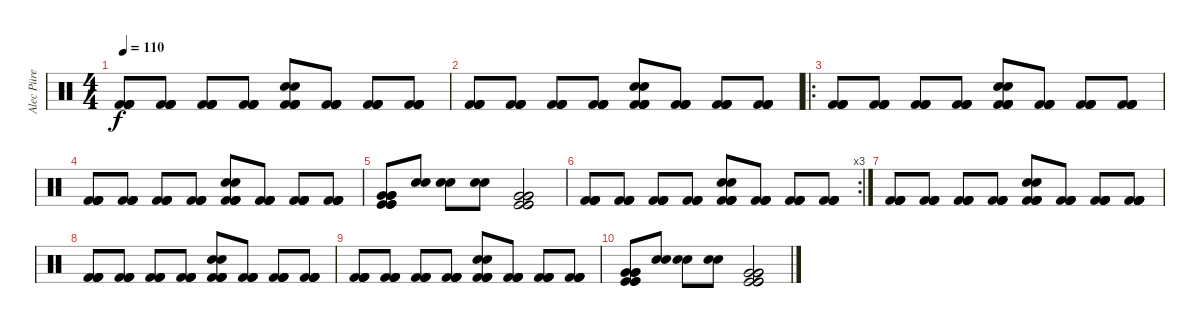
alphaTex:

\track ("Alec Püre" "Alec Püre") {instrument percussion}
\staff {score}
\articulation defaults
\ts (4 4)
\tempo 110
\clef neutral
\ks c
("Kick (hit) 2" "Kick (hit) 2" "Kick (hit) 2" "Kick (hit) 2").8{dy f} ("Kick (hit) 2" "Kick (hit) 2" "Kick (hit) 2" "Kick (hit) 2").8 ("Kick (hit) 2" "Kick (hit) 2" "Kick (hit) 2" "Kick (hit) 2").8 ("Kick (hit) 2" "Kick (hit) 2" "Kick (hit) 2" "Kick (hit) 2").8 ("Snare (hit) 2" "Snare (hit) 2" "Kick (hit) 2" "Kick (hit) 2" "Kick (hit) 2" "Kick (hit) 2").8 ("Kick (hit) 2" "Kick (hit) 2" "Kick (hit) 2" "Kick (hit) 2").8 ("Kick (hit) 2" "Kick (hit) 2" "Kick (hit) 2" "Kick (hit) 2").8 ("Kick (hit) 2" "Kick (hit) 2" "Kick (hit) 2" "Kick (hit) 2").8 |
("Kick (hit) 2" "Kick (hit) 2" "Kick (hit) 2" "Kick (hit) 2").8 ("Kick (hit) 2" "Kick (hit) 2" "Kick (hit) 2" "Kick (hit) 2").8 ("Kick (hit) 2" "Kick (hit) 2" "Kick (hit) 2" "Kick (hit) 2").8 ("Kick (hit) 2" "Kick (hit) 2" "Kick (hit) 2" "Kick (hit) 2").8 ("Snare (hit) 2" "Snare (hit) 2" "Kick (hit) 2" "Kick (hit) 2" "Kick (hit) 2" "Kick (hit) 2").8 ("Kick (hit) 2" "Kick (hit) 2" "Kick (hit) 2" "Kick (hit) 2").8 ("Kick (hit) 2" "Kick (hit) 2" "Kick (hit) 2" "Kick (hit) 2").8 ("Kick (hit) 2" "Kick (hit) 2" "Kick (hit) 2" "Kick (hit) 2").8 |
\ro
("Kick (hit) 2" "Kick (hit) 2" "Kick (hit) 2" "Kick (hit) 2").8 ("Kick (hit) 2" "Kick (hit) 2" "Kick (hit) 2" "Kick (hit) 2").8 ("Kick (hit) 2" "Kick (hit) 2" "Kick (hit) 2" "Kick (hit) 2").8 ("Kick (hit) 2" "Kick (hit) 2" "Kick (hit) 2" "Kick (hit) 2").8 ("Snare (hit) 2" "Snare (hit) 2" "Kick (hit) 2" "Kick (hit) 2" "Kick (hit) 2" "Kick (hit) 2").8 ("Kick (hit) 2" "Kick (hit) 2" "Kick (hit) 2" "Kick (hit) 2").8 ("Kick (hit) 2" "Kick (hit) 2" "Kick (hit) 2" "Kick (hit) 2").8 ("Kick (hit) 2" "Kick (hit) 2" "Kick (hit) 2" "Kick (hit) 2").8 |
("Kick (hit) 2" "Kick (hit) 2" "Kick (hit) 2" "Kick (hit) 2").8 ("Kick (hit) 2" "Kick (hit) 2" "Kick (hit) 2" "Kick (hit) 2").8 ("Kick (hit) 2" "Kick (hit) 2" "Kick (hit) 2" "Kick (hit) 2").8 ("Kick (hit) 2" "Kick (hit) 2" "Kick (hit) 2" "Kick (hit) 2").8 ("Snare (hit) 2" "Snare (hit) 2" "Kick (hit) 2" "Kick (hit) 2" "Kick (hit) 2" "Kick (hit) 2").8 ("Kick (hit) 2" "Kick (hit) 2" "Kick (hit) 2" "Kick (hit) 2").8 ("Kick (hit) 2" "Kick (hit) 2" "Kick (hit) 2" "Kick (hit) 2").8 ("Kick (hit) 2" "Kick (hit) 2" "Kick (hit) 2" "Kick (hit) 2").8 |
("Very Low Tom (hit)" "Very Low Tom (hit)" "Very Low Tom (hit)" "Kick (hit)" "Kick (hit)" "Kick (hit)").8 ("Electric Snare (hit)" "Electric Snare (hit)").8 ("Electric Snare (hit)" "Electric Snare (hit)").8 ("Electric Snare (hit)" "Electric Snare (hit)").8 ("Very Low Tom (hit)" "Very Low Tom (hit)" "Very Low Tom (hit)" "Kick (hit)" "Kick (hit)" "Kick (hit)").2 |
\rc 3
("Kick (hit) 2" "Kick (hit) 2" "Kick (hit) 2" "Kick (hit) 2").8 ("Kick (hit) 2" "Kick (hit) 2" "Kick (hit) 2" "Kick (hit) 2").8 ("Kick (hit) 2" "Kick (hit) 2" "Kick (hit) 2" "Kick (hit) 2").8 ("Kick (hit) 2" "Kick (hit) 2" "Kick (hit) 2" "Kick (hit) 2").8 ("Snare (hit) 2" "Snare (hit) 2" "Kick (hit) 2" "Kick (hit) 2" "Kick (hit) 2" "Kick (hit) 2").8 ("Kick (hit) 2" "Kick (hit) 2" "Kick (hit) 2" "Kick (hit) 2").8 ("Kick (hit) 2" "Kick (hit) 2" "Kick (hit) 2" "Kick (hit) 2").8 ("Kick (hit) 2" "Kick (hit) 2" "Kick (hit) 2" "Kick (hit) 2").8 |
("Kick (hit) 2" "Kick (hit) 2" "Kick (hit) 2" "Kick (hit) 2").8 ("Kick (hit) 2" "Kick (hit) 2" "Kick (hit) 2" "Kick (hit) 2").8 ("Kick (hit) 2" "Kick (hit) 2" "Kick (hit) 2" "Kick (hit) 2").8 ("Kick (hit) 2" "Kick (hit) 2" "Kick (hit) 2" "Kick (hit) 2").8 ("Snare (hit) 2" "Snare (hit) 2" "Kick (hit) 2" "Kick (hit) 2" "Kick (hit) 2" "Kick (hit) 2").8 ("Kick (hit) 2" "Kick (hit) 2" "Kick (hit) 2" "Kick (hit) 2").8 ("Kick (hit) 2" "Kick (hit) 2" "Kick (hit) 2" "Kick (hit) 2").8 ("Kick (hit) 2" "Kick (hit) 2" "Kick (hit) 2" "Kick (hit) 2").8 |
("Kick (hit) 2" "Kick (hit) 2" "Kick (hit) 2" "Kick (hit) 2").8 ("Kick (hit) 2" "Kick (hit) 2" "Kick (hit) 2" "Kick (hit) 2").8 ("Kick (hit) 2" "Kick (hit) 2" "Kick (hit) 2" "Kick (hit) 2").8 ("Kick (hit) 2" "Kick (hit) 2" "Kick (hit) 2" "Kick (hit) 2").8 ("Snare (hit) 2" "Snare (hit) 2" "Kick (hit) 2" "Kick (hit) 2" "Kick (hit) 2" "Kick (hit) 2").8 ("Kick (hit) 2" "Kick (hit) 2" "Kick (hit) 2" "Kick (hit) 2").8 ("Kick (hit) 2" "Kick (hit) 2" "Kick (hit) 2" "Kick (hit) 2").8 ("Kick (hit) 2" "Kick (hit) 2" "Kick (hit) 2" "Kick (hit) 2").8 |
("Kick (hit) 2" "Kick (hit) 2" "Kick (hit) 2" "Kick (hit) 2").8 ("Kick (hit) 2" "Kick (hit) 2" "Kick (hit) 2" "Kick (hit) 2").8 ("Kick (hit) 2" "Kick (hit) 2" "Kick (hit) 2" "Kick (hit) 2").8 ("Kick (hit) 2" "Kick (hit) 2" "Kick (hit) 2" "Kick (hit) 2").8 ("Snare (hit) 2" "Snare (hit) 2" "Kick (hit) 2" "Kick (hit) 2" "Kick (hit) 2" "Kick (hit) 2").8 ("Kick (hit) 2" "Kick (hit) 2" "Kick (hit) 2" "Kick (hit) 2").8 ("Kick (hit) 2" "Kick (hit) 2" "Kick (hit) 2" "Kick (hit) 2").8 ("Kick (hit) 2" "Kick (hit) 2" "Kick (hit) 2" "Kick (hit) 2").8 |
("Very Low Tom (hit)" "Very Low Tom (hit)" "Very Low Tom (hit)" "Kick (hit)" "Kick (hit)" "Kick (hit)").8 ("Electric Snare (hit)" "Electric Snare (hit)").8 ("Electric Snare (hit)" "Electric Snare (hit)").8 ("Electric Snare (hit)" "Electric Snare (hit)").8 ("Very Low Tom (hit)" "Very Low Tom (hit)" "Very Low Tom (hit)" "Kick (hit)" "Kick (hit)" "Kick (hit)").2
